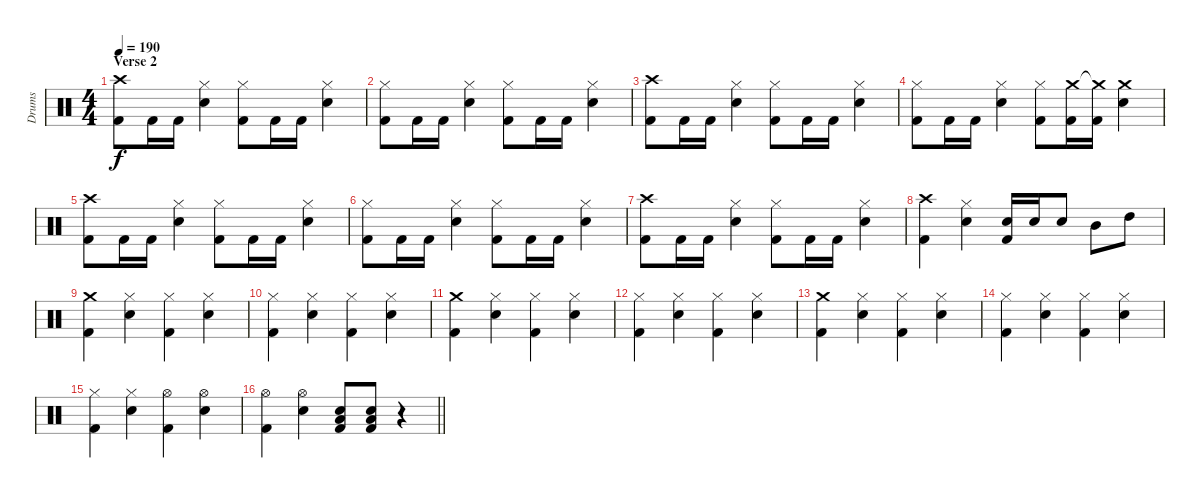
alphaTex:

\track ("Drums" "Drums") {instrument percussion}
\staff {score}
\articulation defaults
\ts (4 4)
\section ("" "Verse 2")
\tempo 190
\clef neutral
\ks c
("Crash high (hit)" "Kick (hit) 2").8{dy f} "Kick (hit) 2".16 "Kick (hit) 2".16 ("Hi-Hat (closed)" "Electric Snare (hit)").4 ("Hi-Hat (closed)" "Kick (hit) 2").8 "Kick (hit) 2".16 "Kick (hit) 2".16 ("Hi-Hat (closed)" "Electric Snare (hit)").4 |
("Hi-Hat (closed)" "Kick (hit) 2").8 "Kick (hit) 2".16 "Kick (hit) 2".16 ("Hi-Hat (closed)" "Electric Snare (hit)").4 ("Hi-Hat (closed)" "Kick (hit) 2").8 "Kick (hit) 2".16 "Kick (hit) 2".16 ("Hi-Hat (closed)" "Electric Snare (hit)").4 |
("Crash high (hit)" "Kick (hit) 2").8 "Kick (hit) 2".16 "Kick (hit) 2".16 ("Hi-Hat (closed)" "Electric Snare (hit)").4 ("Hi-Hat (closed)" "Kick (hit) 2").8 "Kick (hit) 2".16 "Kick (hit) 2".16 ("Hi-Hat (closed)" "Electric Snare (hit)").4 |
("Hi-Hat (closed)" "Kick (hit) 2").8 "Kick (hit) 2".16 "Kick (hit) 2".16 ("Hi-Hat (closed)" "Electric Snare (hit)").4 ("Hi-Hat (closed)" "Kick (hit) 2").8 ("Crash medium (hit)" "Kick (hit) 2").16 ("Crash medium (hit)"{t} "Kick (hit) 2").16 ("Crash medium (hit)" "Electric Snare (hit)").4 |
("Crash high (hit)" "Kick (hit) 2").8 "Kick (hit) 2".16 "Kick (hit) 2".16 ("Hi-Hat (closed)" "Electric Snare (hit)").4 ("Hi-Hat (closed)" "Kick (hit) 2").8 "Kick (hit) 2".16 "Kick (hit) 2".16 ("Hi-Hat (closed)" "Electric Snare (hit)").4 |
("Hi-Hat (closed)" "Kick (hit) 2").8 "Kick (hit) 2".16 "Kick (hit) 2".16 ("Hi-Hat (closed)" "Electric Snare (hit)").4 ("Hi-Hat (closed)" "Kick (hit) 2").8 "Kick (hit) 2".16 "Kick (hit) 2".16 ("Hi-Hat (closed)" "Electric Snare (hit)").4 |
("Crash high (hit)" "Kick (hit) 2").8 "Kick (hit) 2".16 "Kick (hit) 2".16 ("Hi-Hat (closed)" "Electric Snare (hit)").4 ("Hi-Hat (closed)" "Kick (hit) 2").8 "Kick (hit) 2".16 "Kick (hit) 2".16 ("Hi-Hat (closed)" "Electric Snare (hit)").4 |
("Crash high (hit)" "Kick (hit) 2").4 ("Hi-Hat (closed)" "Electric Snare (hit)").4 ("Electric Snare (hit)" "Kick (hit) 2").16 "Electric Snare (hit)".16 "Electric Snare (hit)".8 "Mid Tom (hit)".8 "High Tom (hit)".8 |
("Crash medium (hit)" "Kick (hit) 2").4 ("Hi-Hat (closed)" "Electric Snare (hit)").4 ("Hi-Hat (closed)" "Kick (hit) 2").4 ("Hi-Hat (closed)" "Electric Snare (hit)").4 |
("Hi-Hat (closed)" "Kick (hit) 2").4 ("Hi-Hat (closed)" "Electric Snare (hit)").4 ("Hi-Hat (closed)" "Kick (hit) 2").4 ("Hi-Hat (closed)" "Electric Snare (hit)").4 |
("Crash medium (hit)" "Kick (hit) 2").4 ("Hi-Hat (closed)" "Electric Snare (hit)").4 ("Hi-Hat (closed)" "Kick (hit) 2").4 ("Hi-Hat (closed)" "Electric Snare (hit)").4 |
("Hi-Hat (closed)" "Kick (hit) 2").4 ("Hi-Hat (closed)" "Electric Snare (hit)").4 ("Hi-Hat (closed)" "Kick (hit) 2").4 ("Hi-Hat (closed)" "Electric Snare (hit)").4 |
("Crash medium (hit)" "Kick (hit) 2").4 ("Hi-Hat (closed)" "Electric Snare (hit)").4 ("Hi-Hat (closed)" "Kick (hit) 2").4 ("Hi-Hat (closed)" "Electric Snare (hit)").4 |
("Hi-Hat (closed)" "Kick (hit) 2").4 ("Hi-Hat (closed)" "Electric Snare (hit)").4 ("Hi-Hat (closed)" "Kick (hit) 2").4 ("Hi-Hat (closed)" "Electric Snare (hit)").4 |
("Hi-Hat (closed)" "Kick (hit) 2").4 ("Hi-Hat (closed)" "Electric Snare (hit)").4 ("Hi-Hat (open)" "Kick (hit) 2").4 ("Hi-Hat (open)" "Electric Snare (hit)").4 |
\barLineRight lightlight
("Hi-Hat (open)" "Kick (hit) 2").4 ("Hi-Hat (open)" "Electric Snare (hit)").4 ("Low Floor Tom (hit)" "Electric Snare (hit)" "Kick (hit) 2").8 ("Low Floor Tom (hit)" "Electric Snare (hit)" "Kick (hit) 2").8 r.4
